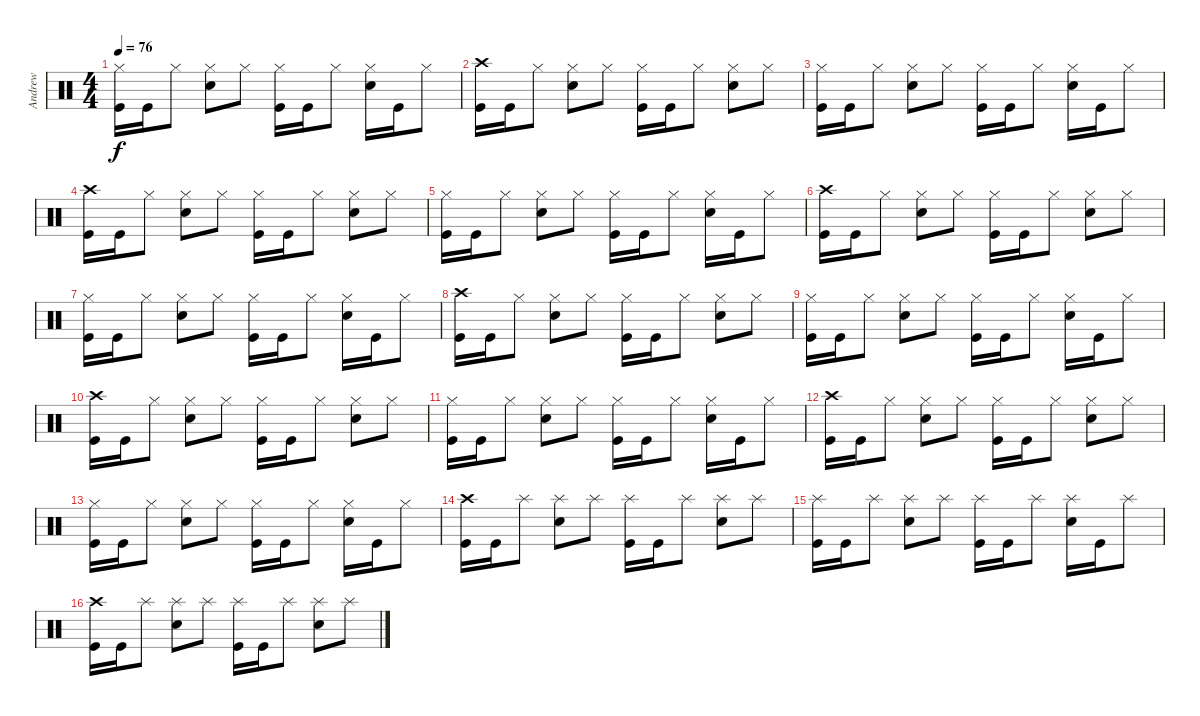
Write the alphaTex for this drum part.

\track ("Andrew" "Andrew") {instrument percussion}
\staff {score}
\articulation defaults
\ts (4 4)
\tempo 76
\clef neutral
\ks c
("Hi-Hat (closed)" "Kick (hit)").16{dy f} "Kick (hit)".16 "Hi-Hat (closed)".8 ("Hi-Hat (closed)" "Snare (hit) 2").8 "Hi-Hat (closed)".8 ("Hi-Hat (closed)" "Kick (hit)").16 "Kick (hit)".16 "Hi-Hat (closed)".8 ("Hi-Hat (closed)" "Snare (hit) 2").16 "Kick (hit)".16 "Hi-Hat (closed)".8 |
("Crash high (hit)" "Kick (hit)").16 "Kick (hit)".16 "Hi-Hat (closed)".8 ("Hi-Hat (closed)" "Snare (hit) 2").8 "Hi-Hat (closed)".8 ("Hi-Hat (closed)" "Kick (hit)").16 "Kick (hit)".16 "Hi-Hat (closed)".8 ("Hi-Hat (closed)" "Snare (hit) 2").8 "Hi-Hat (closed)".8 |
("Hi-Hat (closed)" "Kick (hit)").16 "Kick (hit)".16 "Hi-Hat (closed)".8 ("Hi-Hat (closed)" "Snare (hit) 2").8 "Hi-Hat (closed)".8 ("Hi-Hat (closed)" "Kick (hit)").16 "Kick (hit)".16 "Hi-Hat (closed)".8 ("Hi-Hat (closed)" "Snare (hit) 2").16 "Kick (hit)".16 "Hi-Hat (closed)".8 |
("Crash high (hit)" "Kick (hit)").16 "Kick (hit)".16 "Hi-Hat (closed)".8 ("Hi-Hat (closed)" "Snare (hit) 2").8 "Hi-Hat (closed)".8 ("Hi-Hat (closed)" "Kick (hit)").16 "Kick (hit)".16 "Hi-Hat (closed)".8 ("Hi-Hat (closed)" "Snare (hit) 2").8 "Hi-Hat (closed)".8 |
("Hi-Hat (closed)" "Kick (hit)").16 "Kick (hit)".16 "Hi-Hat (closed)".8 ("Hi-Hat (closed)" "Snare (hit) 2").8 "Hi-Hat (closed)".8 ("Hi-Hat (closed)" "Kick (hit)").16 "Kick (hit)".16 "Hi-Hat (closed)".8 ("Hi-Hat (closed)" "Snare (hit) 2").16 "Kick (hit)".16 "Hi-Hat (closed)".8 |
("Crash high (hit)" "Kick (hit)").16 "Kick (hit)".16 "Hi-Hat (closed)".8 ("Hi-Hat (closed)" "Snare (hit) 2").8 "Hi-Hat (closed)".8 ("Hi-Hat (closed)" "Kick (hit)").16 "Kick (hit)".16 "Hi-Hat (closed)".8 ("Hi-Hat (closed)" "Snare (hit) 2").8 "Hi-Hat (closed)".8 |
("Hi-Hat (closed)" "Kick (hit)").16 "Kick (hit)".16 "Hi-Hat (closed)".8 ("Hi-Hat (closed)" "Snare (hit) 2").8 "Hi-Hat (closed)".8 ("Hi-Hat (closed)" "Kick (hit)").16 "Kick (hit)".16 "Hi-Hat (closed)".8 ("Hi-Hat (closed)" "Snare (hit) 2").16 "Kick (hit)".16 "Hi-Hat (closed)".8 |
("Crash high (hit)" "Kick (hit)").16 "Kick (hit)".16 "Hi-Hat (closed)".8 ("Hi-Hat (closed)" "Snare (hit) 2").8 "Hi-Hat (closed)".8 ("Hi-Hat (closed)" "Kick (hit)").16 "Kick (hit)".16 "Hi-Hat (closed)".8 ("Hi-Hat (closed)" "Snare (hit) 2").8 "Hi-Hat (closed)".8 |
("Hi-Hat (closed)" "Kick (hit)").16 "Kick (hit)".16 "Hi-Hat (closed)".8 ("Hi-Hat (closed)" "Snare (hit) 2").8 "Hi-Hat (closed)".8 ("Hi-Hat (closed)" "Kick (hit)").16 "Kick (hit)".16 "Hi-Hat (closed)".8 ("Hi-Hat (closed)" "Snare (hit) 2").16 "Kick (hit)".16 "Hi-Hat (closed)".8 |
("Crash high (hit)" "Kick (hit)").16 "Kick (hit)".16 "Hi-Hat (closed)".8 ("Hi-Hat (closed)" "Snare (hit) 2").8 "Hi-Hat (closed)".8 ("Hi-Hat (closed)" "Kick (hit)").16 "Kick (hit)".16 "Hi-Hat (closed)".8 ("Hi-Hat (closed)" "Snare (hit) 2").8 "Hi-Hat (closed)".8 |
("Hi-Hat (closed)" "Kick (hit)").16 "Kick (hit)".16 "Hi-Hat (closed)".8 ("Hi-Hat (closed)" "Snare (hit) 2").8 "Hi-Hat (closed)".8 ("Hi-Hat (closed)" "Kick (hit)").16 "Kick (hit)".16 "Hi-Hat (closed)".8 ("Hi-Hat (closed)" "Snare (hit) 2").16 "Kick (hit)".16 "Hi-Hat (closed)".8 |
("Crash high (hit)" "Kick (hit)").16 "Kick (hit)".16 "Hi-Hat (closed)".8 ("Hi-Hat (closed)" "Snare (hit) 2").8 "Hi-Hat (closed)".8 ("Hi-Hat (closed)" "Kick (hit)").16 "Kick (hit)".16 "Hi-Hat (closed)".8 ("Hi-Hat (closed)" "Snare (hit) 2").8 "Hi-Hat (closed)".8 |
("Hi-Hat (closed)" "Kick (hit)").16 "Kick (hit)".16 "Hi-Hat (closed)".8 ("Hi-Hat (closed)" "Snare (hit) 2").8 "Hi-Hat (closed)".8 ("Hi-Hat (closed)" "Kick (hit)").16 "Kick (hit)".16 "Hi-Hat (closed)".8 ("Hi-Hat (closed)" "Snare (hit) 2").16 "Kick (hit)".16 "Hi-Hat (closed)".8 |
("Crash high (hit)" "Kick (hit)").16 "Kick (hit)".16 "Splash (hit)".8 ("Splash (hit)" "Snare (hit) 2").8 "Splash (hit)".8 ("Splash (hit)" "Kick (hit)").16 "Kick (hit)".16 "Splash (hit)".8 ("Splash (hit)" "Snare (hit) 2").8 "Splash (hit)".8 |
("Splash (hit)" "Kick (hit)").16 "Kick (hit)".16 "Splash (hit)".8 ("Splash (hit)" "Snare (hit) 2").8 "Splash (hit)".8 ("Splash (hit)" "Kick (hit)").16 "Kick (hit)".16 "Splash (hit)".8 ("Splash (hit)" "Snare (hit) 2").16 "Kick (hit)".16 "Splash (hit)".8 |
("Crash high (hit)" "Kick (hit)").16 "Kick (hit)".16 "Splash (hit)".8 ("Splash (hit)" "Snare (hit) 2").8 "Splash (hit)".8 ("Splash (hit)" "Kick (hit)").16 "Kick (hit)".16 "Splash (hit)".8 ("Splash (hit)" "Snare (hit) 2").8 "Splash (hit)".8
